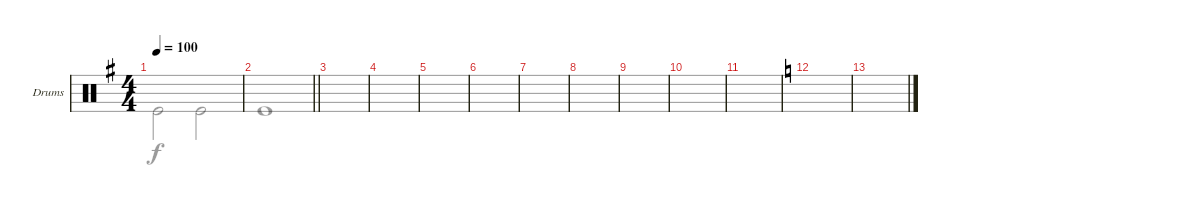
\defaultSystemsLayout 4
\bracketExtendMode groupsimilarinstruments
\firstSystemTrackNameOrientation horizontal
\otherSystemsTrackNameOrientation horizontal
\track ("Drumkit" "Drums") {instrument percussion}
\staff {score}
\articulation defaults
\voice
\ts (4 4)
\tempo 100
\clef neutral
\ks g
|
\barLineRight lightlight
|
\tempo (115 0.375 hide)
|
|
|
|
|
|
|
|
|
\ks c
|
\tempo (100 hide)
|
|
|
\voice
\clef neutral
\ks g "Kick (hit)".2{dy f} "Kick (hit)".2
|
\barLineRight lightlight "Kick (hit)".1
|
|
|
|
|
|
|
|
|
|
\ks c
|
|
|
|
